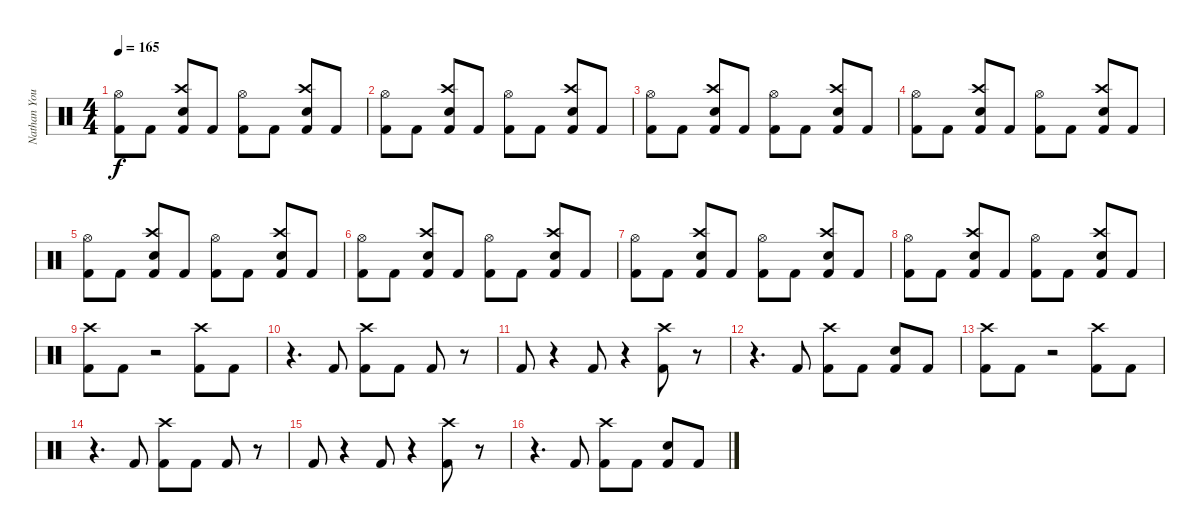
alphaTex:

\track ("Nathan Young" "Nathan You") {instrument percussion}
\staff {score}
\articulation defaults
\ts (4 4)
\tempo 165
\clef neutral
\ks c
("Hi-Hat (open)" "Kick (hit) 2").8{dy f} "Kick (hit) 2".8 ("Crash high (hit)" "Snare (hit) 2" "Kick (hit) 2").8 "Kick (hit) 2".8 ("Hi-Hat (open)" "Kick (hit) 2").8 "Kick (hit) 2".8 ("Crash high (hit)" "Snare (hit) 2" "Kick (hit) 2").8 "Kick (hit) 2".8 |
("Hi-Hat (open)" "Kick (hit) 2").8 "Kick (hit) 2".8 ("Crash high (hit)" "Snare (hit) 2" "Kick (hit) 2").8 "Kick (hit) 2".8 ("Hi-Hat (open)" "Kick (hit) 2").8 "Kick (hit) 2".8 ("Crash high (hit)" "Snare (hit) 2" "Kick (hit) 2").8 "Kick (hit) 2".8 |
("Hi-Hat (open)" "Kick (hit) 2").8 "Kick (hit) 2".8 ("Crash high (hit)" "Snare (hit) 2" "Kick (hit) 2").8 "Kick (hit) 2".8 ("Hi-Hat (open)" "Kick (hit) 2").8 "Kick (hit) 2".8 ("Crash high (hit)" "Snare (hit) 2" "Kick (hit) 2").8 "Kick (hit) 2".8 |
("Hi-Hat (open)" "Kick (hit) 2").8 "Kick (hit) 2".8 ("Crash high (hit)" "Snare (hit) 2" "Kick (hit) 2").8 "Kick (hit) 2".8 ("Hi-Hat (open)" "Kick (hit) 2").8 "Kick (hit) 2".8 ("Crash high (hit)" "Snare (hit) 2" "Kick (hit) 2").8 "Kick (hit) 2".8 |
("Hi-Hat (open)" "Kick (hit) 2").8 "Kick (hit) 2".8 ("Crash high (hit)" "Snare (hit) 2" "Kick (hit) 2").8 "Kick (hit) 2".8 ("Hi-Hat (open)" "Kick (hit) 2").8 "Kick (hit) 2".8 ("Crash high (hit)" "Snare (hit) 2" "Kick (hit) 2").8 "Kick (hit) 2".8 |
("Hi-Hat (open)" "Kick (hit) 2").8 "Kick (hit) 2".8 ("Crash high (hit)" "Snare (hit) 2" "Kick (hit) 2").8 "Kick (hit) 2".8 ("Hi-Hat (open)" "Kick (hit) 2").8 "Kick (hit) 2".8 ("Crash high (hit)" "Snare (hit) 2" "Kick (hit) 2").8 "Kick (hit) 2".8 |
("Hi-Hat (open)" "Kick (hit) 2").8 "Kick (hit) 2".8 ("Crash high (hit)" "Snare (hit) 2" "Kick (hit) 2").8 "Kick (hit) 2".8 ("Hi-Hat (open)" "Kick (hit) 2").8 "Kick (hit) 2".8 ("Crash high (hit)" "Snare (hit) 2" "Kick (hit) 2").8 "Kick (hit) 2".8 |
("Hi-Hat (open)" "Kick (hit) 2").8 "Kick (hit) 2".8 ("Crash high (hit)" "Snare (hit) 2" "Kick (hit) 2").8 "Kick (hit) 2".8 ("Hi-Hat (open)" "Kick (hit) 2").8 "Kick (hit) 2".8 ("Crash high (hit)" "Snare (hit) 2" "Kick (hit) 2").8 "Kick (hit) 2".8 |
("Crash high (hit)" "Kick (hit) 2").8 "Kick (hit) 2".8 r.2 ("Crash high (hit)" "Kick (hit) 2").8 "Kick (hit) 2".8 |
r.4{d} "Kick (hit) 2".8 ("Crash high (hit)" "Kick (hit) 2").8 "Kick (hit) 2".8 "Kick (hit) 2".8 r.8 |
"Kick (hit) 2".8 r.4 "Kick (hit) 2".8 r.4 ("Crash high (hit)" "Kick (hit) 2").8 r.8 |
r.4{d} "Kick (hit) 2".8 ("Crash high (hit)" "Kick (hit) 2").8 "Kick (hit) 2".8 ("Snare (hit) 2" "Kick (hit) 2").8 "Kick (hit) 2".8 |
("Crash high (hit)" "Kick (hit) 2").8 "Kick (hit) 2".8 r.2 ("Crash high (hit)" "Kick (hit) 2").8 "Kick (hit) 2".8 |
r.4{d} "Kick (hit) 2".8 ("Crash high (hit)" "Kick (hit) 2").8 "Kick (hit) 2".8 "Kick (hit) 2".8 r.8 |
"Kick (hit) 2".8 r.4 "Kick (hit) 2".8 r.4 ("Crash high (hit)" "Kick (hit) 2").8 r.8 |
r.4{d} "Kick (hit) 2".8 ("Crash high (hit)" "Kick (hit) 2").8 "Kick (hit) 2".8 ("Snare (hit) 2" "Kick (hit) 2").8 "Kick (hit) 2".8
